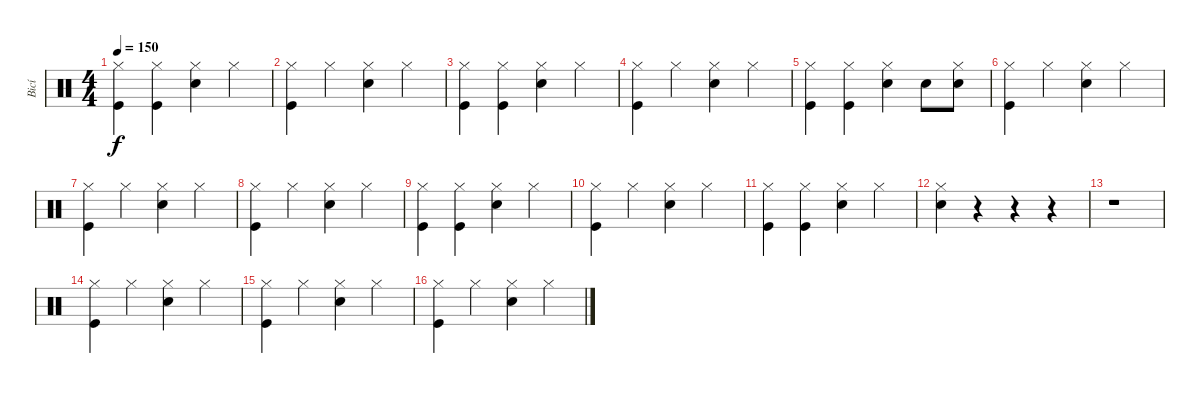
\track ("Bicí" "Bicí") {instrument percussion}
\staff {score}
\articulation defaults
\ts (4 4)
\tempo 150
\clef neutral
\ks c
("Kick (hit)" "Hi-Hat (closed)").4{dy f} ("Kick (hit)" "Hi-Hat (closed)").4 ("Snare (hit) 2" "Hi-Hat (closed)").4 "Hi-Hat (closed)".4 |
("Kick (hit)" "Hi-Hat (closed)").4 "Hi-Hat (closed)".4 ("Snare (hit) 2" "Hi-Hat (closed)").4 "Hi-Hat (closed)".4 |
("Kick (hit)" "Hi-Hat (closed)").4 ("Kick (hit)" "Hi-Hat (closed)").4 ("Snare (hit) 2" "Hi-Hat (closed)").4 "Hi-Hat (closed)".4 |
("Kick (hit)" "Hi-Hat (closed)").4 "Hi-Hat (closed)".4 ("Snare (hit) 2" "Hi-Hat (closed)").4 "Hi-Hat (closed)".4 |
("Kick (hit)" "Hi-Hat (closed)").4 ("Kick (hit)" "Hi-Hat (closed)").4 ("Snare (hit) 2" "Hi-Hat (closed)").4 "Snare (hit) 2".8 ("Snare (hit) 2" "Hi-Hat (closed)").8 |
("Kick (hit)" "Hi-Hat (closed)").4 "Hi-Hat (closed)".4 ("Snare (hit) 2" "Hi-Hat (closed)").4 "Hi-Hat (closed)".4 |
("Kick (hit)" "Hi-Hat (closed)").4 "Hi-Hat (closed)".4 ("Snare (hit) 2" "Hi-Hat (closed)").4 "Hi-Hat (closed)".4 |
("Kick (hit)" "Hi-Hat (closed)").4 "Hi-Hat (closed)".4 ("Snare (hit) 2" "Hi-Hat (closed)").4 "Hi-Hat (closed)".4 |
("Kick (hit)" "Hi-Hat (closed)").4 ("Kick (hit)" "Hi-Hat (closed)").4 ("Snare (hit) 2" "Hi-Hat (closed)").4 "Hi-Hat (closed)".4 |
("Kick (hit)" "Hi-Hat (closed)").4 "Hi-Hat (closed)".4 ("Snare (hit) 2" "Hi-Hat (closed)").4 "Hi-Hat (closed)".4 |
("Kick (hit)" "Hi-Hat (closed)").4 ("Kick (hit)" "Hi-Hat (closed)").4 ("Snare (hit) 2" "Hi-Hat (closed)").4 "Hi-Hat (closed)".4 |
("Snare (hit) 2" "Hi-Hat (closed)").4 r.4 r.4 r.4 |
r.1 |
("Kick (hit)" "Hi-Hat (closed)").4 "Hi-Hat (closed)".4 ("Snare (hit) 2" "Hi-Hat (closed)").4 "Hi-Hat (closed)".4 |
("Kick (hit)" "Hi-Hat (closed)").4 "Hi-Hat (closed)".4 ("Snare (hit) 2" "Hi-Hat (closed)").4 "Hi-Hat (closed)".4 |
("Kick (hit)" "Hi-Hat (closed)").4 "Hi-Hat (closed)".4 ("Snare (hit) 2" "Hi-Hat (closed)").4 "Hi-Hat (closed)".4
